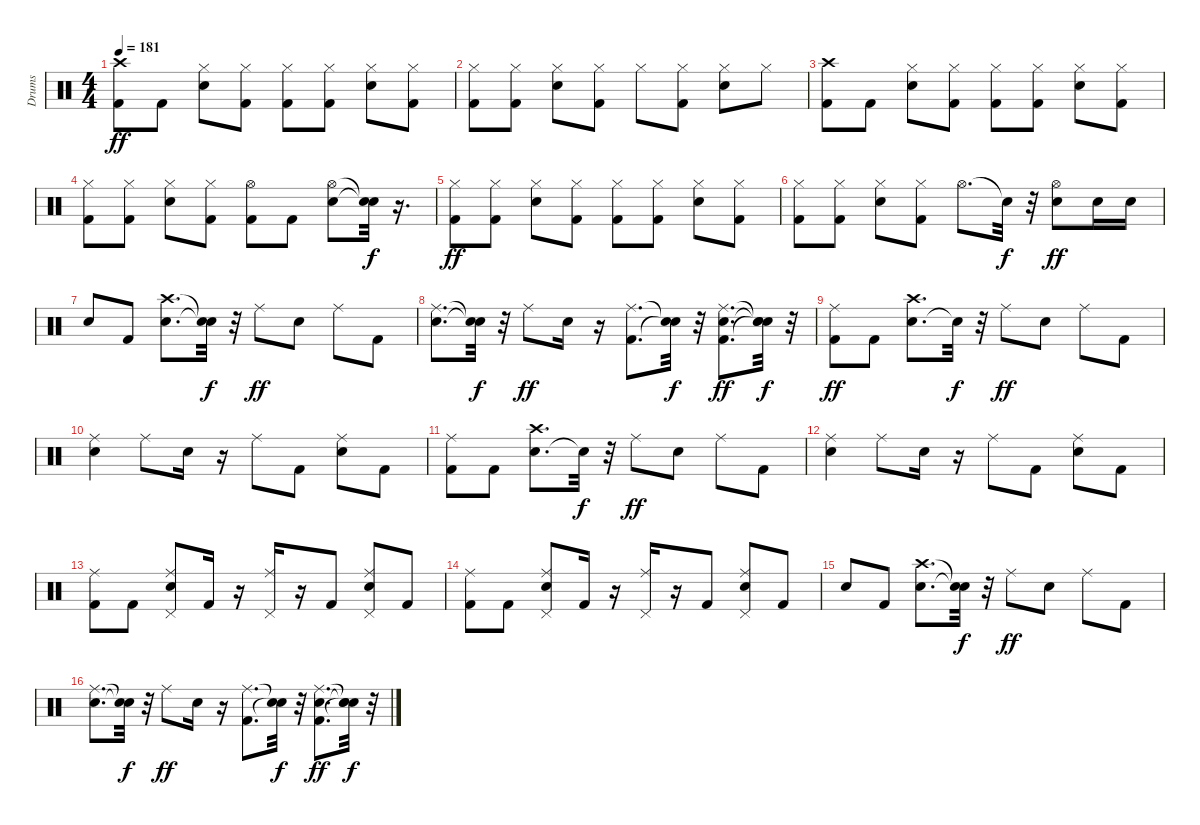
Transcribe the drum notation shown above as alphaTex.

\track ("Drums" "Drums") {instrument percussion}
\staff {score}
\articulation defaults
\ts (4 4)
\tempo 181
\clef neutral
\ks c
("Kick (hit) 2" "Crash high (hit)").8{dy ff} "Kick (hit) 2".8 ("Snare (hit) 2" "Hi-Hat (closed)").8 ("Kick (hit) 2" "Hi-Hat (closed)").8 ("Kick (hit) 2" "Hi-Hat (closed)").8 ("Kick (hit) 2" "Hi-Hat (closed)").8 ("Snare (hit) 2" "Hi-Hat (closed)").8 ("Kick (hit) 2" "Hi-Hat (closed)").8 |
("Kick (hit) 2" "Hi-Hat (closed)").8 ("Kick (hit) 2" "Hi-Hat (closed)").8 ("Snare (hit) 2" "Hi-Hat (closed)").8 ("Kick (hit) 2" "Hi-Hat (closed)").8 "Hi-Hat (closed)".8 ("Kick (hit) 2" "Hi-Hat (closed)").8 ("Snare (hit) 2" "Hi-Hat (closed)").8 "Hi-Hat (closed)".8 |
("Kick (hit) 2" "Crash high (hit)").8 "Kick (hit) 2".8 ("Snare (hit) 2" "Hi-Hat (closed)").8 ("Kick (hit) 2" "Hi-Hat (closed)").8 ("Kick (hit) 2" "Hi-Hat (closed)").8 ("Kick (hit) 2" "Hi-Hat (closed)").8 ("Snare (hit) 2" "Hi-Hat (closed)").8 ("Kick (hit) 2" "Hi-Hat (closed)").8 |
("Kick (hit) 2" "Hi-Hat (closed)").8 ("Kick (hit) 2" "Hi-Hat (closed)").8 ("Snare (hit) 2" "Hi-Hat (closed)").8 ("Kick (hit) 2" "Hi-Hat (closed)").8 ("Kick (hit) 2" "Hi-Hat (open)").8 "Kick (hit) 2".8 ("Snare (hit) 2" "Hi-Hat (open)").8 ("Snare (hit)"{t} "Snare (hit)"{t}).32{dy f} r.16{d} |
("Kick (hit) 2" "Hi-Hat (closed)").8{dy ff} ("Kick (hit) 2" "Hi-Hat (closed)").8 ("Snare (hit) 2" "Hi-Hat (closed)").8 ("Kick (hit) 2" "Hi-Hat (closed)").8 ("Kick (hit) 2" "Hi-Hat (closed)").8 ("Kick (hit) 2" "Hi-Hat (closed)").8 ("Snare (hit) 2" "Hi-Hat (closed)").8 ("Kick (hit) 2" "Hi-Hat (closed)").8 |
("Kick (hit) 2" "Hi-Hat (closed)").8 ("Kick (hit) 2" "Hi-Hat (closed)").8 ("Snare (hit) 2" "Hi-Hat (closed)").8 ("Kick (hit) 2" "Hi-Hat (closed)").8 "Hi-Hat (open)".8{d} "Snare (hit)"{t}.32{dy f} r.32 ("Snare (hit) 2" "Hi-Hat (open)").8{dy ff} "Snare (hit) 2".16 "Snare (hit) 2".16 |
"Snare (hit) 2".8 "Kick (hit) 2".8 ("Snare (hit) 2" "Crash high (hit)").8{d} ("Snare (hit)"{t} "Snare (hit)"{t}).32{dy f} r.32 "Ride (middle)".8{dy ff} "Snare (hit) 2".8 "Ride (middle)".8 "Kick (hit) 2".8 |
("Snare (hit) 2" "Ride (middle)").8{d} ("Snare (hit)"{t} "Snare (hit)"{t}).32{dy f} r.32 "Ride (middle)".8{dy ff} "Snare (hit) 2".16 r.16 ("Kick (hit) 2" "Ride (middle)").8{d} ("Snare (hit)"{t} "Snare (hit)"{t}).32{dy f} r.32 ("Kick (hit) 2" "Snare (hit) 2" "Ride (middle)").8{d dy ff} ("Snare (hit)"{t} "Snare (hit)"{t} "Snare (hit)"{t}).32{dy f} r.32 |
("Kick (hit) 2" "Ride (middle)").8{dy ff} "Kick (hit) 2".8 ("Snare (hit) 2" "Crash high (hit)").8{d} "Snare (hit)"{t}.32{dy f} r.32 "Ride (middle)".8{dy ff} "Snare (hit) 2".8 "Ride (middle)".8 "Kick (hit) 2".8 |
("Snare (hit) 2" "Ride (middle)").4 "Ride (middle)".8 "Snare (hit) 2".16 r.16 "Ride (middle)".8 "Kick (hit) 2".8 ("Snare (hit) 2" "Ride (middle)").8 "Kick (hit) 2".8 |
("Kick (hit) 2" "Ride (middle)").8 "Kick (hit) 2".8 ("Snare (hit) 2" "Crash high (hit)").8{d} "Snare (hit)"{t}.32{dy f} r.32 "Ride (middle)".8{dy ff} "Snare (hit) 2".8 "Ride (middle)".8 "Kick (hit) 2".8 |
("Snare (hit) 2" "Ride (middle)").4 "Ride (middle)".8 "Snare (hit) 2".16 r.16 "Ride (middle)".8 "Kick (hit) 2".8 ("Snare (hit) 2" "Ride (middle)").8 "Kick (hit) 2".8 |
("Kick (hit) 2" "Ride (middle)").8 "Kick (hit) 2".8 ("Snare (hit) 2" "Pedal Hi-Hat (hit)" "Ride (middle)").8 "Kick (hit) 2".16 r.16 ("Pedal Hi-Hat (hit)" "Ride (middle)").16 r.16 "Kick (hit) 2".8 ("Snare (hit) 2" "Pedal Hi-Hat (hit)" "Ride (middle)").8 "Kick (hit) 2".8 |
("Kick (hit) 2" "Ride (middle)").8 "Kick (hit) 2".8 ("Snare (hit) 2" "Pedal Hi-Hat (hit)" "Ride (middle)").8 "Kick (hit) 2".16 r.16 ("Pedal Hi-Hat (hit)" "Ride (middle)").16 r.16 "Kick (hit) 2".8 ("Snare (hit) 2" "Pedal Hi-Hat (hit)" "Ride (middle)").8 "Kick (hit) 2".8 |
"Snare (hit) 2".8 "Kick (hit) 2".8 ("Snare (hit) 2" "Crash high (hit)").8{d} ("Snare (hit)"{t} "Snare (hit)"{t}).32{dy f} r.32 "Ride (middle)".8{dy ff} "Snare (hit) 2".8 "Ride (middle)".8 "Kick (hit) 2".8 |
("Snare (hit) 2" "Ride (middle)").8{d} ("Snare (hit)"{t} "Snare (hit)"{t}).32{dy f} r.32 "Ride (middle)".8{dy ff} "Snare (hit) 2".16 r.16 ("Kick (hit) 2" "Ride (middle)").8{d} ("Snare (hit)"{t} "Snare (hit)"{t}).32{dy f} r.32 ("Kick (hit) 2" "Snare (hit) 2" "Ride (middle)").8{d dy ff} ("Snare (hit)"{t} "Snare (hit)"{t} "Snare (hit)"{t}).32{dy f} r.32
